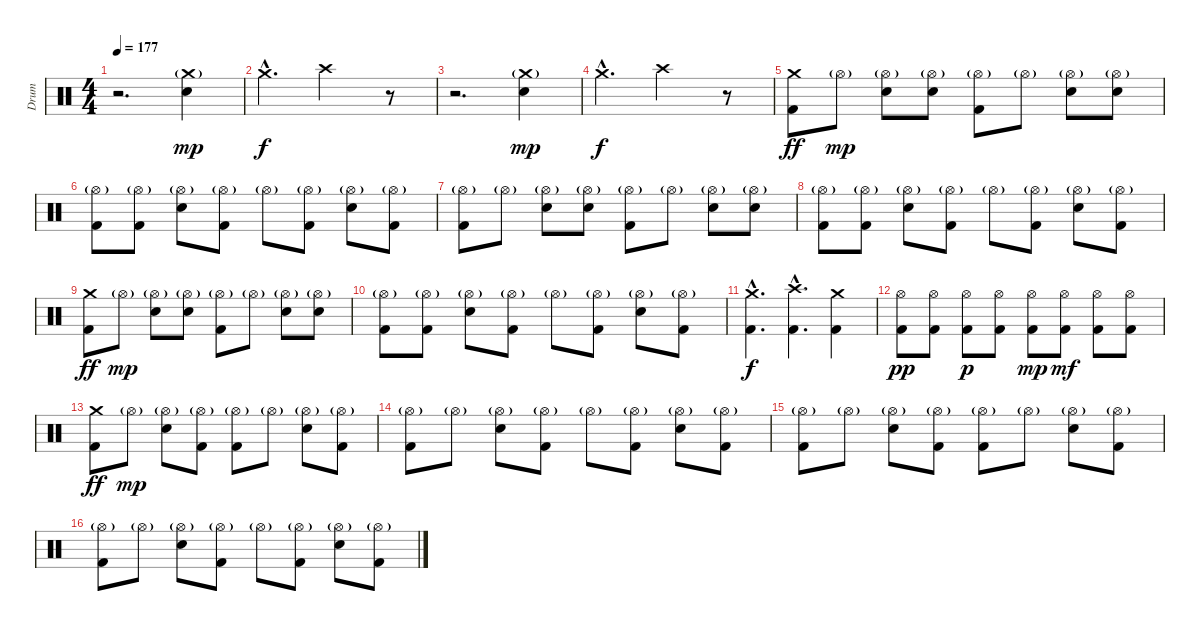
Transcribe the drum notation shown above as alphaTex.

\track ("Drum" "Drum") {instrument percussion}
\staff {score}
\articulation defaults
\ts (4 4)
\tempo 177
\clef neutral
\ks c
r.2{d dy mp} ("Crash medium (hit)"{g} "Electric Snare (hit)").4 |
"Crash medium (hit)"{hac}.4{d dy f} "Crash high (hit)".2 r.8 |
r.2{d} ("Crash medium (hit)"{g} "Electric Snare (hit)").4{dy mp} |
"Crash medium (hit)"{hac}.4{d dy f} "Crash high (hit)".2 r.8 |
("Crash medium (hit)" "Kick (hit) 2").8{dy ff} "Hi-Hat (open)"{g}.8{dy mp} ("Hi-Hat (open)"{g} "Electric Snare (hit)").8 ("Hi-Hat (open)"{g} "Electric Snare (hit)").8 ("Hi-Hat (open)"{g} "Kick (hit) 2").8 "Hi-Hat (open)"{g}.8 ("Hi-Hat (open)"{g} "Electric Snare (hit)").8 ("Hi-Hat (open)"{g} "Electric Snare (hit)").8 |
("Hi-Hat (open)"{g} "Kick (hit) 2").8 ("Hi-Hat (open)"{g} "Kick (hit) 2").8 ("Hi-Hat (open)"{g} "Electric Snare (hit)").8 ("Hi-Hat (open)"{g} "Kick (hit) 2").8 "Hi-Hat (open)"{g}.8 ("Hi-Hat (open)"{g} "Kick (hit) 2").8 ("Hi-Hat (open)"{g} "Electric Snare (hit)").8 ("Hi-Hat (open)"{g} "Kick (hit) 2").8 |
("Hi-Hat (open)"{g} "Kick (hit) 2").8 "Hi-Hat (open)"{g}.8 ("Hi-Hat (open)"{g} "Electric Snare (hit)").8 ("Hi-Hat (open)"{g} "Electric Snare (hit)").8 ("Hi-Hat (open)"{g} "Kick (hit) 2").8 "Hi-Hat (open)"{g}.8 ("Hi-Hat (open)"{g} "Electric Snare (hit)").8 ("Hi-Hat (open)"{g} "Electric Snare (hit)").8 |
("Hi-Hat (open)"{g} "Kick (hit) 2").8 ("Hi-Hat (open)"{g} "Kick (hit) 2").8 ("Hi-Hat (open)"{g} "Electric Snare (hit)").8 ("Hi-Hat (open)"{g} "Kick (hit) 2").8 "Hi-Hat (open)"{g}.8 ("Hi-Hat (open)"{g} "Kick (hit) 2").8 ("Hi-Hat (open)"{g} "Electric Snare (hit)").8 ("Hi-Hat (open)"{g} "Kick (hit) 2").8 |
("Crash medium (hit)" "Kick (hit) 2").8{dy ff} "Hi-Hat (open)"{g}.8{dy mp} ("Hi-Hat (open)"{g} "Electric Snare (hit)").8 ("Hi-Hat (open)"{g} "Electric Snare (hit)").8 ("Hi-Hat (open)"{g} "Kick (hit) 2").8 "Hi-Hat (open)"{g}.8 ("Hi-Hat (open)"{g} "Electric Snare (hit)").8 ("Hi-Hat (open)"{g} "Electric Snare (hit)").8 |
("Hi-Hat (open)"{g} "Kick (hit) 2").8 ("Hi-Hat (open)"{g} "Kick (hit) 2").8 ("Hi-Hat (open)"{g} "Electric Snare (hit)").8 ("Hi-Hat (open)"{g} "Kick (hit) 2").8 "Hi-Hat (open)"{g}.8 ("Hi-Hat (open)"{g} "Kick (hit) 2").8 ("Hi-Hat (open)"{g} "Electric Snare (hit)").8 ("Hi-Hat (open)"{g} "Kick (hit) 2").8 |
("Crash medium (hit)"{hac} "Kick (hit) 2"{hac}).4{d dy f} ("Crash high (hit)"{hac} "Kick (hit) 2"{hac}).4{d} ("Crash medium (hit)" "Kick (hit) 2").4 |
("Hi-Hat (open)" "Kick (hit) 2").8{dy pp} ("Hi-Hat (open)" "Kick (hit) 2").8 ("Hi-Hat (open)" "Kick (hit) 2").8{dy p} ("Hi-Hat (open)" "Kick (hit) 2").8 ("Hi-Hat (open)" "Kick (hit) 2").8{dy mp} ("Hi-Hat (open)" "Kick (hit) 2").8{dy mf} ("Hi-Hat (open)" "Kick (hit) 2").8 ("Hi-Hat (open)" "Kick (hit) 2").8 |
("Crash medium (hit)" "Kick (hit) 2").8{dy ff} "Hi-Hat (open)"{g}.8{dy mp} ("Hi-Hat (open)"{g} "Electric Snare (hit)").8 ("Hi-Hat (open)"{g} "Kick (hit) 2").8 ("Hi-Hat (open)"{g} "Kick (hit) 2").8 "Hi-Hat (open)"{g}.8 ("Hi-Hat (open)"{g} "Electric Snare (hit)").8 ("Hi-Hat (open)"{g} "Kick (hit) 2").8 |
("Hi-Hat (open)"{g} "Kick (hit) 2").8 "Hi-Hat (open)"{g}.8 ("Hi-Hat (open)"{g} "Electric Snare (hit)").8 ("Hi-Hat (open)"{g} "Kick (hit) 2").8 "Hi-Hat (open)"{g}.8 ("Hi-Hat (open)"{g} "Kick (hit) 2").8 ("Hi-Hat (open)"{g} "Electric Snare (hit)").8 ("Hi-Hat (open)"{g} "Kick (hit) 2").8 |
("Hi-Hat (open)"{g} "Kick (hit) 2").8 "Hi-Hat (open)"{g}.8 ("Hi-Hat (open)"{g} "Electric Snare (hit)").8 ("Hi-Hat (open)"{g} "Kick (hit) 2").8 ("Hi-Hat (open)"{g} "Kick (hit) 2").8 "Hi-Hat (open)"{g}.8 ("Hi-Hat (open)"{g} "Electric Snare (hit)").8 ("Hi-Hat (open)"{g} "Kick (hit) 2").8 |
("Hi-Hat (open)"{g} "Kick (hit) 2").8 "Hi-Hat (open)"{g}.8 ("Hi-Hat (open)"{g} "Electric Snare (hit)").8 ("Hi-Hat (open)"{g} "Kick (hit) 2").8 "Hi-Hat (open)"{g}.8 ("Hi-Hat (open)"{g} "Kick (hit) 2").8 ("Hi-Hat (open)"{g} "Electric Snare (hit)").8 ("Hi-Hat (open)"{g} "Kick (hit) 2").8
